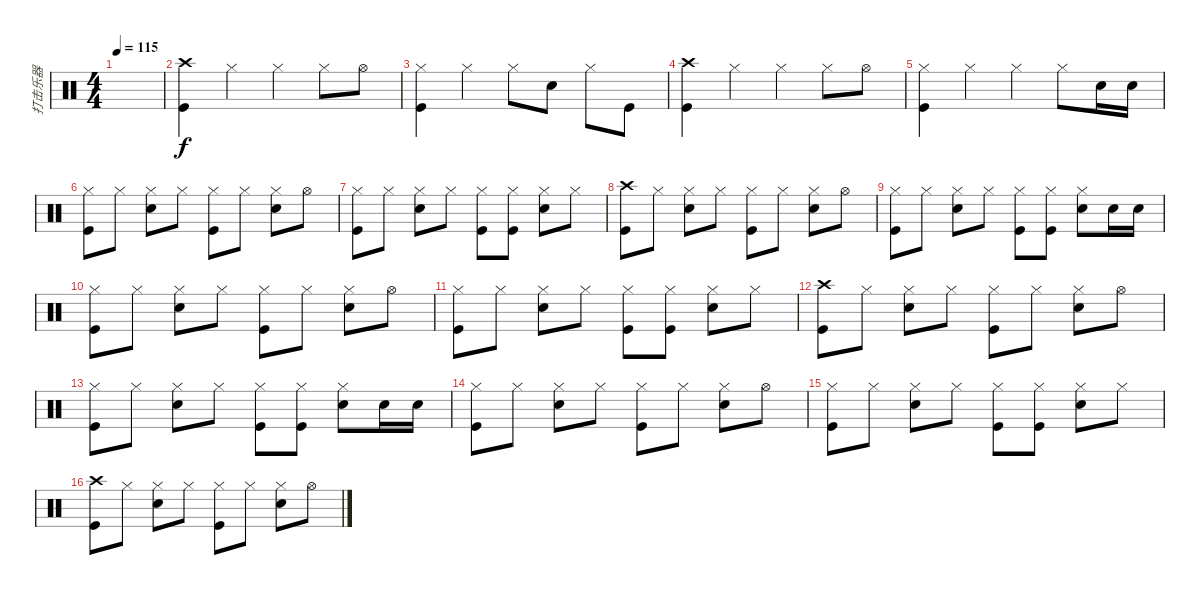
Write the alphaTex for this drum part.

\track ("打击乐器" "打击乐器") {instrument percussion}
\staff {score}
\articulation defaults
\ts (4 4)
\tempo 115
\clef neutral
\ks c
|
("Crash high (hit)" "Kick (hit)").4 "Hi-Hat (closed)".4 "Hi-Hat (closed)".4 "Hi-Hat (closed)".8 "Hi-Hat (open)".8 |
("Hi-Hat (closed)" "Kick (hit)").4 "Hi-Hat (closed)".4 "Hi-Hat (closed)".8 "Snare (hit) 2".8 "Hi-Hat (closed)".8 "Kick (hit)".8 |
("Crash high (hit)" "Kick (hit)").4 "Hi-Hat (closed)".4 "Hi-Hat (closed)".4 "Hi-Hat (closed)".8 "Hi-Hat (open)".8 |
("Hi-Hat (closed)" "Kick (hit)").4 "Hi-Hat (closed)".4 "Hi-Hat (closed)".4 "Hi-Hat (closed)".8 "Snare (hit) 2".16 "Snare (hit) 2".16 |
("Hi-Hat (closed)" "Kick (hit)").8 "Hi-Hat (closed)".8 ("Hi-Hat (closed)" "Snare (hit) 2").8 "Hi-Hat (closed)".8 ("Hi-Hat (closed)" "Kick (hit)").8 "Hi-Hat (closed)".8 ("Hi-Hat (closed)" "Snare (hit) 2").8 "Hi-Hat (open)".8 |
("Hi-Hat (closed)" "Kick (hit)").8 "Hi-Hat (closed)".8 ("Hi-Hat (closed)" "Snare (hit) 2").8 "Hi-Hat (closed)".8 ("Hi-Hat (closed)" "Kick (hit)").8 ("Hi-Hat (closed)" "Kick (hit)").8 ("Hi-Hat (closed)" "Snare (hit) 2").8 "Hi-Hat (closed)".8 |
("Crash high (hit)" "Kick (hit)").8 "Hi-Hat (closed)".8 ("Hi-Hat (closed)" "Snare (hit) 2").8 "Hi-Hat (closed)".8 ("Hi-Hat (closed)" "Kick (hit)").8 "Hi-Hat (closed)".8 ("Hi-Hat (closed)" "Snare (hit) 2").8 "Hi-Hat (open)".8 |
("Hi-Hat (closed)" "Kick (hit)").8 "Hi-Hat (closed)".8 ("Hi-Hat (closed)" "Snare (hit) 2").8 "Hi-Hat (closed)".8 ("Hi-Hat (closed)" "Kick (hit)").8 ("Hi-Hat (closed)" "Kick (hit)").8 ("Hi-Hat (closed)" "Snare (hit) 2").8 "Snare (hit) 2".16 "Snare (hit) 2".16 |
("Hi-Hat (closed)" "Kick (hit)").8 "Hi-Hat (closed)".8 ("Hi-Hat (closed)" "Snare (hit) 2").8 "Hi-Hat (closed)".8 ("Hi-Hat (closed)" "Kick (hit)").8 "Hi-Hat (closed)".8 ("Hi-Hat (closed)" "Snare (hit) 2").8 "Hi-Hat (open)".8 |
("Hi-Hat (closed)" "Kick (hit)").8 "Hi-Hat (closed)".8 ("Hi-Hat (closed)" "Snare (hit) 2").8 "Hi-Hat (closed)".8 ("Hi-Hat (closed)" "Kick (hit)").8 ("Hi-Hat (closed)" "Kick (hit)").8 ("Hi-Hat (closed)" "Snare (hit) 2").8 "Hi-Hat (closed)".8 |
("Crash high (hit)" "Kick (hit)").8 "Hi-Hat (closed)".8 ("Hi-Hat (closed)" "Snare (hit) 2").8 "Hi-Hat (closed)".8 ("Hi-Hat (closed)" "Kick (hit)").8 "Hi-Hat (closed)".8 ("Hi-Hat (closed)" "Snare (hit) 2").8 "Hi-Hat (open)".8 |
("Hi-Hat (closed)" "Kick (hit)").8{volume 0} "Hi-Hat (closed)".8 ("Hi-Hat (closed)" "Snare (hit) 2").8 "Hi-Hat (closed)".8 ("Hi-Hat (closed)" "Kick (hit)").8 ("Hi-Hat (closed)" "Kick (hit)").8 ("Hi-Hat (closed)" "Snare (hit) 2").8 "Snare (hit) 2".16 "Snare (hit) 2".16 |
("Hi-Hat (closed)" "Kick (hit)").8 "Hi-Hat (closed)".8 ("Hi-Hat (closed)" "Snare (hit) 2").8 "Hi-Hat (closed)".8 ("Hi-Hat (closed)" "Kick (hit)").8 "Hi-Hat (closed)".8 ("Hi-Hat (closed)" "Snare (hit) 2").8 "Hi-Hat (open)".8 |
("Hi-Hat (closed)" "Kick (hit)").8 "Hi-Hat (closed)".8 ("Hi-Hat (closed)" "Snare (hit) 2").8 "Hi-Hat (closed)".8 ("Hi-Hat (closed)" "Kick (hit)").8 ("Hi-Hat (closed)" "Kick (hit)").8 ("Hi-Hat (closed)" "Snare (hit) 2").8 "Hi-Hat (closed)".8 |
("Crash high (hit)" "Kick (hit)").8 "Hi-Hat (closed)".8 ("Hi-Hat (closed)" "Snare (hit) 2").8 "Hi-Hat (closed)".8 ("Hi-Hat (closed)" "Kick (hit)").8 "Hi-Hat (closed)".8 ("Hi-Hat (closed)" "Snare (hit) 2").8 "Hi-Hat (open)".8
